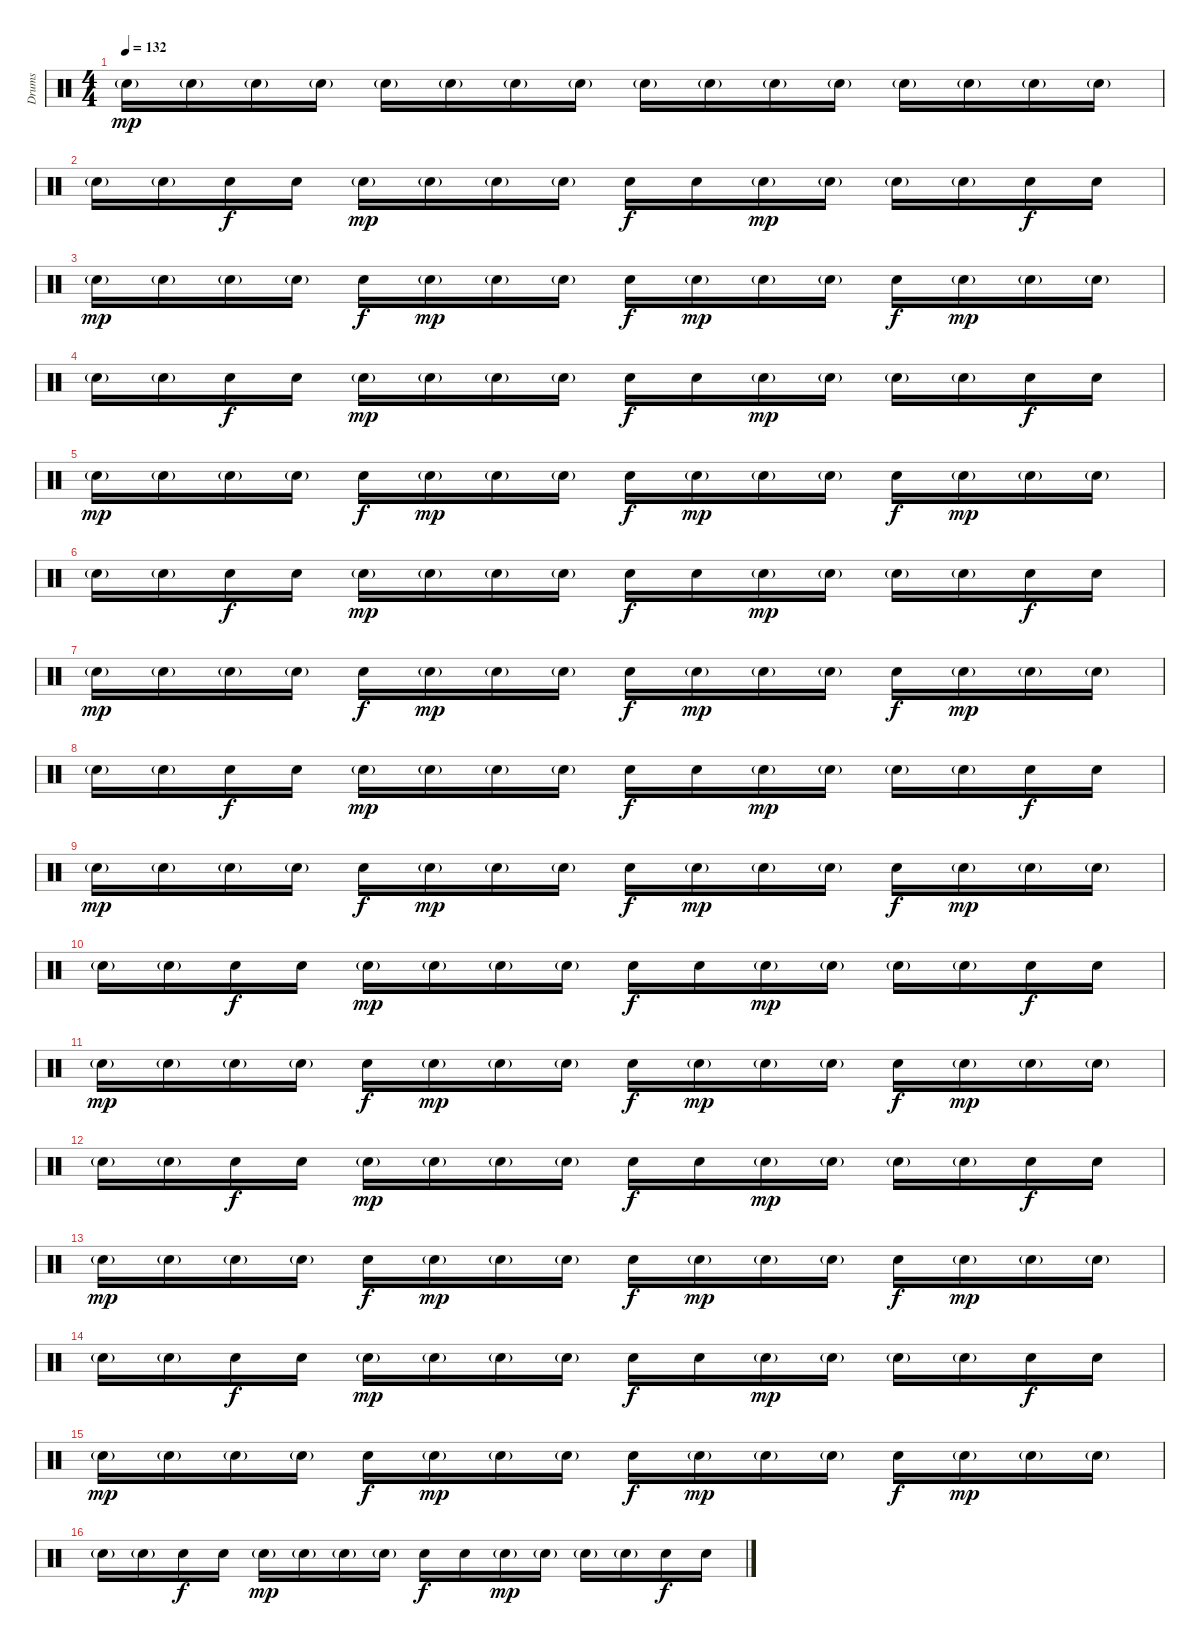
\track ("Drums" "Drums") {instrument percussion}
\staff {score}
\articulation defaults
\ts (4 4)
\tempo 132
\clef neutral
\ks c "Snare (hit) 2"{g}.16{dy mp} "Snare (hit) 2"{g}.16 "Snare (hit) 2"{g}.16 "Snare (hit) 2"{g}.16 "Snare (hit) 2"{g}.16 "Snare (hit) 2"{g}.16 "Snare (hit) 2"{g}.16 "Snare (hit) 2"{g}.16 "Snare (hit) 2"{g}.16 "Snare (hit) 2"{g}.16 "Snare (hit) 2"{g}.16 "Snare (hit) 2"{g}.16 "Snare (hit) 2"{g}.16 "Snare (hit) 2"{g}.16 "Snare (hit) 2"{g}.16 "Snare (hit) 2"{g}.16
|
"Snare (hit) 2"{g}.16 "Snare (hit) 2"{g}.16 "Snare (hit) 2".16{dy f} "Snare (hit) 2".16 "Snare (hit) 2"{g}.16{dy mp} "Snare (hit) 2"{g}.16 "Snare (hit) 2"{g}.16 "Snare (hit) 2"{g}.16 "Snare (hit) 2".16{dy f} "Snare (hit) 2".16 "Snare (hit) 2"{g}.16{dy mp} "Snare (hit) 2"{g}.16 "Snare (hit) 2"{g}.16 "Snare (hit) 2"{g}.16 "Snare (hit) 2".16{dy f} "Snare (hit) 2".16 |
"Snare (hit) 2"{g}.16{dy mp} "Snare (hit) 2"{g}.16 "Snare (hit) 2"{g}.16 "Snare (hit) 2"{g}.16 "Snare (hit) 2".16{dy f} "Snare (hit) 2"{g}.16{dy mp} "Snare (hit) 2"{g}.16 "Snare (hit) 2"{g}.16 "Snare (hit) 2".16{dy f} "Snare (hit) 2"{g}.16{dy mp} "Snare (hit) 2"{g}.16 "Snare (hit) 2"{g}.16 "Snare (hit) 2".16{dy f} "Snare (hit) 2"{g}.16{dy mp} "Snare (hit) 2"{g}.16 "Snare (hit) 2"{g}.16 |
"Snare (hit) 2"{g}.16 "Snare (hit) 2"{g}.16 "Snare (hit) 2".16{dy f} "Snare (hit) 2".16 "Snare (hit) 2"{g}.16{dy mp} "Snare (hit) 2"{g}.16 "Snare (hit) 2"{g}.16 "Snare (hit) 2"{g}.16 "Snare (hit) 2".16{dy f} "Snare (hit) 2".16 "Snare (hit) 2"{g}.16{dy mp} "Snare (hit) 2"{g}.16 "Snare (hit) 2"{g}.16 "Snare (hit) 2"{g}.16 "Snare (hit) 2".16{dy f} "Snare (hit) 2".16 |
"Snare (hit) 2"{g}.16{dy mp} "Snare (hit) 2"{g}.16 "Snare (hit) 2"{g}.16 "Snare (hit) 2"{g}.16 "Snare (hit) 2".16{dy f} "Snare (hit) 2"{g}.16{dy mp} "Snare (hit) 2"{g}.16 "Snare (hit) 2"{g}.16 "Snare (hit) 2".16{dy f} "Snare (hit) 2"{g}.16{dy mp} "Snare (hit) 2"{g}.16 "Snare (hit) 2"{g}.16 "Snare (hit) 2".16{dy f} "Snare (hit) 2"{g}.16{dy mp} "Snare (hit) 2"{g}.16 "Snare (hit) 2"{g}.16 |
"Snare (hit) 2"{g}.16 "Snare (hit) 2"{g}.16 "Snare (hit) 2".16{dy f} "Snare (hit) 2".16 "Snare (hit) 2"{g}.16{dy mp} "Snare (hit) 2"{g}.16 "Snare (hit) 2"{g}.16 "Snare (hit) 2"{g}.16 "Snare (hit) 2".16{dy f} "Snare (hit) 2".16 "Snare (hit) 2"{g}.16{dy mp} "Snare (hit) 2"{g}.16 "Snare (hit) 2"{g}.16 "Snare (hit) 2"{g}.16 "Snare (hit) 2".16{dy f} "Snare (hit) 2".16 |
"Snare (hit) 2"{g}.16{dy mp} "Snare (hit) 2"{g}.16 "Snare (hit) 2"{g}.16 "Snare (hit) 2"{g}.16 "Snare (hit) 2".16{dy f} "Snare (hit) 2"{g}.16{dy mp} "Snare (hit) 2"{g}.16 "Snare (hit) 2"{g}.16 "Snare (hit) 2".16{dy f} "Snare (hit) 2"{g}.16{dy mp} "Snare (hit) 2"{g}.16 "Snare (hit) 2"{g}.16 "Snare (hit) 2".16{dy f} "Snare (hit) 2"{g}.16{dy mp} "Snare (hit) 2"{g}.16 "Snare (hit) 2"{g}.16 |
"Snare (hit) 2"{g}.16 "Snare (hit) 2"{g}.16 "Snare (hit) 2".16{dy f} "Snare (hit) 2".16 "Snare (hit) 2"{g}.16{dy mp} "Snare (hit) 2"{g}.16 "Snare (hit) 2"{g}.16 "Snare (hit) 2"{g}.16 "Snare (hit) 2".16{dy f} "Snare (hit) 2".16 "Snare (hit) 2"{g}.16{dy mp} "Snare (hit) 2"{g}.16 "Snare (hit) 2"{g}.16 "Snare (hit) 2"{g}.16 "Snare (hit) 2".16{dy f} "Snare (hit) 2".16 |
"Snare (hit) 2"{g}.16{dy mp} "Snare (hit) 2"{g}.16 "Snare (hit) 2"{g}.16 "Snare (hit) 2"{g}.16 "Snare (hit) 2".16{dy f} "Snare (hit) 2"{g}.16{dy mp} "Snare (hit) 2"{g}.16 "Snare (hit) 2"{g}.16 "Snare (hit) 2".16{dy f} "Snare (hit) 2"{g}.16{dy mp} "Snare (hit) 2"{g}.16 "Snare (hit) 2"{g}.16 "Snare (hit) 2".16{dy f} "Snare (hit) 2"{g}.16{dy mp} "Snare (hit) 2"{g}.16 "Snare (hit) 2"{g}.16 |
"Snare (hit) 2"{g}.16 "Snare (hit) 2"{g}.16 "Snare (hit) 2".16{dy f} "Snare (hit) 2".16 "Snare (hit) 2"{g}.16{dy mp} "Snare (hit) 2"{g}.16 "Snare (hit) 2"{g}.16 "Snare (hit) 2"{g}.16 "Snare (hit) 2".16{dy f} "Snare (hit) 2".16 "Snare (hit) 2"{g}.16{dy mp} "Snare (hit) 2"{g}.16 "Snare (hit) 2"{g}.16 "Snare (hit) 2"{g}.16 "Snare (hit) 2".16{dy f} "Snare (hit) 2".16 |
"Snare (hit) 2"{g}.16{dy mp} "Snare (hit) 2"{g}.16 "Snare (hit) 2"{g}.16 "Snare (hit) 2"{g}.16 "Snare (hit) 2".16{dy f} "Snare (hit) 2"{g}.16{dy mp} "Snare (hit) 2"{g}.16 "Snare (hit) 2"{g}.16 "Snare (hit) 2".16{dy f} "Snare (hit) 2"{g}.16{dy mp} "Snare (hit) 2"{g}.16 "Snare (hit) 2"{g}.16 "Snare (hit) 2".16{dy f} "Snare (hit) 2"{g}.16{dy mp} "Snare (hit) 2"{g}.16 "Snare (hit) 2"{g}.16 |
"Snare (hit) 2"{g}.16 "Snare (hit) 2"{g}.16 "Snare (hit) 2".16{dy f} "Snare (hit) 2".16 "Snare (hit) 2"{g}.16{dy mp} "Snare (hit) 2"{g}.16 "Snare (hit) 2"{g}.16 "Snare (hit) 2"{g}.16 "Snare (hit) 2".16{dy f} "Snare (hit) 2".16 "Snare (hit) 2"{g}.16{dy mp} "Snare (hit) 2"{g}.16 "Snare (hit) 2"{g}.16 "Snare (hit) 2"{g}.16 "Snare (hit) 2".16{dy f} "Snare (hit) 2".16 |
"Snare (hit) 2"{g}.16{dy mp} "Snare (hit) 2"{g}.16 "Snare (hit) 2"{g}.16 "Snare (hit) 2"{g}.16 "Snare (hit) 2".16{dy f} "Snare (hit) 2"{g}.16{dy mp} "Snare (hit) 2"{g}.16 "Snare (hit) 2"{g}.16 "Snare (hit) 2".16{dy f} "Snare (hit) 2"{g}.16{dy mp} "Snare (hit) 2"{g}.16 "Snare (hit) 2"{g}.16 "Snare (hit) 2".16{dy f} "Snare (hit) 2"{g}.16{dy mp} "Snare (hit) 2"{g}.16 "Snare (hit) 2"{g}.16 |
"Snare (hit) 2"{g}.16 "Snare (hit) 2"{g}.16 "Snare (hit) 2".16{dy f} "Snare (hit) 2".16 "Snare (hit) 2"{g}.16{dy mp} "Snare (hit) 2"{g}.16 "Snare (hit) 2"{g}.16 "Snare (hit) 2"{g}.16 "Snare (hit) 2".16{dy f} "Snare (hit) 2".16 "Snare (hit) 2"{g}.16{dy mp} "Snare (hit) 2"{g}.16 "Snare (hit) 2"{g}.16 "Snare (hit) 2"{g}.16 "Snare (hit) 2".16{dy f} "Snare (hit) 2".16 |
"Snare (hit) 2"{g}.16{dy mp} "Snare (hit) 2"{g}.16 "Snare (hit) 2"{g}.16 "Snare (hit) 2"{g}.16 "Snare (hit) 2".16{dy f} "Snare (hit) 2"{g}.16{dy mp} "Snare (hit) 2"{g}.16 "Snare (hit) 2"{g}.16 "Snare (hit) 2".16{dy f} "Snare (hit) 2"{g}.16{dy mp} "Snare (hit) 2"{g}.16 "Snare (hit) 2"{g}.16 "Snare (hit) 2".16{dy f} "Snare (hit) 2"{g}.16{dy mp} "Snare (hit) 2"{g}.16 "Snare (hit) 2"{g}.16 |
"Snare (hit) 2"{g}.16 "Snare (hit) 2"{g}.16 "Snare (hit) 2".16{dy f} "Snare (hit) 2".16 "Snare (hit) 2"{g}.16{dy mp} "Snare (hit) 2"{g}.16 "Snare (hit) 2"{g}.16 "Snare (hit) 2"{g}.16 "Snare (hit) 2".16{dy f} "Snare (hit) 2".16 "Snare (hit) 2"{g}.16{dy mp} "Snare (hit) 2"{g}.16 "Snare (hit) 2"{g}.16 "Snare (hit) 2"{g}.16 "Snare (hit) 2".16{dy f} "Snare (hit) 2".16
